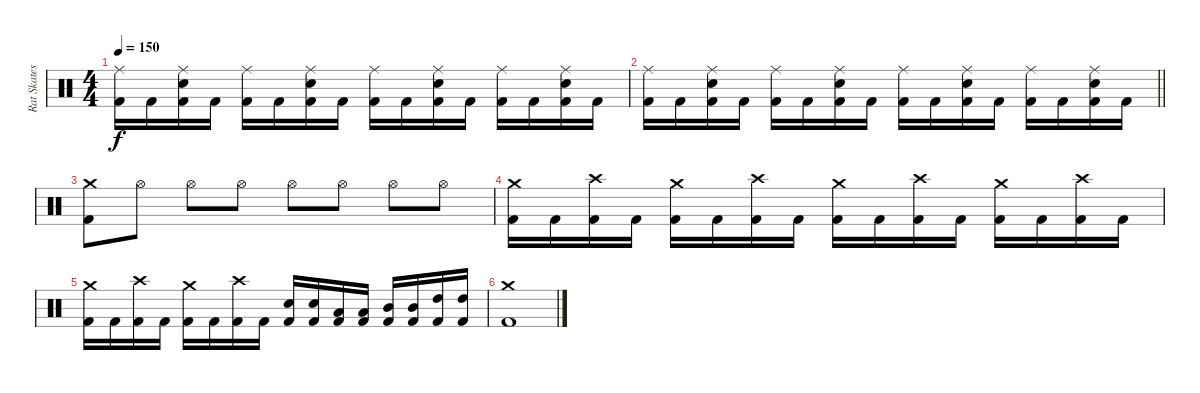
\track ("Rat Skates" "Rat Skates") {instrument percussion}
\staff {score}
\articulation defaults
\ts (4 4)
\tempo 150
\clef neutral
\ks c
("Ride (middle)" "Kick (hit) 2").16{dy f} "Kick (hit) 2".16 ("Ride (middle)" "Snare (hit) 2" "Kick (hit) 2").16 "Kick (hit) 2".16 ("Ride (middle)" "Kick (hit) 2").16 "Kick (hit) 2".16 ("Ride (middle)" "Snare (hit) 2" "Kick (hit) 2").16 "Kick (hit) 2".16 ("Ride (middle)" "Kick (hit) 2").16 "Kick (hit) 2".16 ("Ride (middle)" "Snare (hit) 2" "Kick (hit) 2").16 "Kick (hit) 2".16 ("Ride (middle)" "Kick (hit) 2").16 "Kick (hit) 2".16 ("Ride (middle)" "Snare (hit) 2" "Kick (hit) 2").16 "Kick (hit) 2".16 |
\barLineRight lightlight
("Ride (middle)" "Kick (hit) 2").16 "Kick (hit) 2".16 ("Ride (middle)" "Snare (hit) 2" "Kick (hit) 2").16 "Kick (hit) 2".16 ("Ride (middle)" "Kick (hit) 2").16 "Kick (hit) 2".16 ("Ride (middle)" "Snare (hit) 2" "Kick (hit) 2").16 "Kick (hit) 2".16 ("Ride (middle)" "Kick (hit) 2").16 "Kick (hit) 2".16 ("Ride (middle)" "Snare (hit) 2" "Kick (hit) 2").16 "Kick (hit) 2".16 ("Ride (middle)" "Kick (hit) 2").16 "Kick (hit) 2".16 ("Ride (middle)" "Snare (hit) 2" "Kick (hit) 2").16 "Kick (hit) 2".16 |
("Crash medium (hit)" "Kick (hit) 2").8 "Hi-Hat (open)".8 "Hi-Hat (open)".8 "Hi-Hat (open)".8 "Hi-Hat (open)".8 "Hi-Hat (open)".8 "Hi-Hat (open)".8 "Hi-Hat (open)".8 |
("Crash medium (hit)" "Kick (hit) 2").16 "Kick (hit) 2".16 ("Crash high (hit)" "Kick (hit) 2").16 "Kick (hit) 2".16 ("Crash medium (hit)" "Kick (hit) 2").16 "Kick (hit) 2".16 ("Crash high (hit)" "Kick (hit) 2").16 "Kick (hit) 2".16 ("Crash medium (hit)" "Kick (hit) 2").16 "Kick (hit) 2".16 ("Crash high (hit)" "Kick (hit) 2").16 "Kick (hit) 2".16 ("Crash medium (hit)" "Kick (hit) 2").16 "Kick (hit) 2".16 ("Crash high (hit)" "Kick (hit) 2").16 "Kick (hit) 2".16 |
("Crash medium (hit)" "Kick (hit) 2").16 "Kick (hit) 2".16 ("Crash high (hit)" "Kick (hit) 2").16 "Kick (hit) 2".16 ("Crash medium (hit)" "Kick (hit) 2").16 "Kick (hit) 2".16 ("Crash high (hit)" "Kick (hit) 2").16 "Kick (hit) 2".16 ("Snare (hit) 2" "Kick (hit) 2").16 ("Snare (hit) 2" "Kick (hit) 2").16 ("Low Tom (hit)" "Kick (hit) 2").16 ("Low Tom (hit)" "Kick (hit) 2").16 ("Mid Tom (hit)" "Kick (hit) 2").16 ("Mid Tom (hit)" "Kick (hit) 2").16 ("High Tom (hit)" "Kick (hit) 2").16 ("High Tom (hit)" "Kick (hit) 2").16 |
("Crash medium (hit)" "Kick (hit) 2").1
